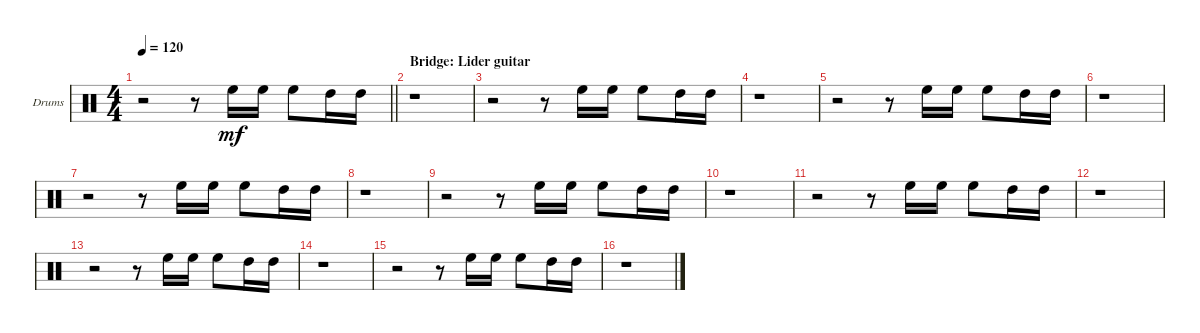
\bracketExtendMode groupsimilarinstruments
\firstSystemTrackNameOrientation horizontal
\otherSystemsTrackNameOrientation horizontal
\track ("Drumkit" "Drums") {instrument percussion}
\staff {score}
\articulation defaults
\ts (4 4)
\tempo 120
\clef neutral
\barLineRight lightlight
\ks c
r.2{dy mf} r.8 "High Floor Tom (hit)".16 "High Floor Tom (hit)".16 "High Floor Tom (hit)".8 "High Tom (hit)".16 "High Tom (hit)".16 |
\section ("" "Bridge: Lider guitar")
r.1 |
r.2 r.8 "High Floor Tom (hit)".16 "High Floor Tom (hit)".16 "High Floor Tom (hit)".8 "High Tom (hit)".16 "High Tom (hit)".16 |
r.1 |
r.2 r.8 "High Floor Tom (hit)".16 "High Floor Tom (hit)".16 "High Floor Tom (hit)".8 "High Tom (hit)".16 "High Tom (hit)".16 |
r.1 |
r.2 r.8 "High Floor Tom (hit)".16 "High Floor Tom (hit)".16 "High Floor Tom (hit)".8 "High Tom (hit)".16 "High Tom (hit)".16 |
r.1 |
r.2 r.8 "High Floor Tom (hit)".16 "High Floor Tom (hit)".16 "High Floor Tom (hit)".8 "High Tom (hit)".16 "High Tom (hit)".16 |
r.1 |
r.2 r.8 "High Floor Tom (hit)".16 "High Floor Tom (hit)".16 "High Floor Tom (hit)".8 "High Tom (hit)".16 "High Tom (hit)".16 |
r.1 |
r.2 r.8 "High Floor Tom (hit)".16 "High Floor Tom (hit)".16 "High Floor Tom (hit)".8 "High Tom (hit)".16 "High Tom (hit)".16 |
r.1 |
r.2 r.8 "High Floor Tom (hit)".16 "High Floor Tom (hit)".16 "High Floor Tom (hit)".8 "High Tom (hit)".16 "High Tom (hit)".16 |
r.1
